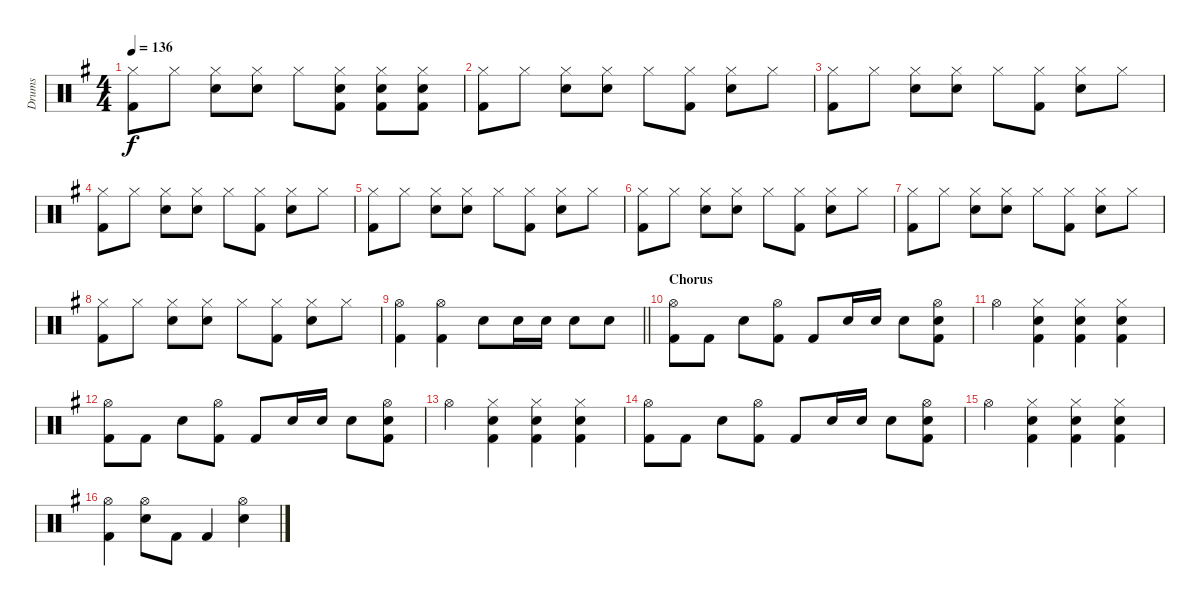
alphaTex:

\track ("Drums" "Drums") {instrument percussion}
\staff {score}
\articulation defaults
\ts (4 4)
\tempo 136
\clef neutral
\ks g
("Hi-Hat (closed)" "Kick (hit) 2").8{dy f} "Hi-Hat (closed)".8 ("Hi-Hat (closed)" "Snare (hit) 2").8 ("Hi-Hat (closed)" "Snare (hit) 2").8 "Hi-Hat (closed)".8 ("Hi-Hat (closed)" "Kick (hit) 2" "Snare (hit) 2").8 ("Hi-Hat (closed)" "Snare (hit) 2" "Kick (hit) 2").8 ("Hi-Hat (closed)" "Snare (hit) 2" "Kick (hit) 2").8 |
("Hi-Hat (closed)" "Kick (hit) 2").8 "Hi-Hat (closed)".8 ("Hi-Hat (closed)" "Snare (hit) 2").8 ("Hi-Hat (closed)" "Snare (hit) 2").8 "Hi-Hat (closed)".8 ("Hi-Hat (closed)" "Kick (hit) 2").8 ("Hi-Hat (closed)" "Snare (hit) 2").8 "Hi-Hat (closed)".8 |
("Hi-Hat (closed)" "Kick (hit) 2").8 "Hi-Hat (closed)".8 ("Hi-Hat (closed)" "Snare (hit) 2").8 ("Hi-Hat (closed)" "Snare (hit) 2").8 "Hi-Hat (closed)".8 ("Hi-Hat (closed)" "Kick (hit) 2").8 ("Hi-Hat (closed)" "Snare (hit) 2").8 "Hi-Hat (closed)".8 |
("Hi-Hat (closed)" "Kick (hit) 2").8 "Hi-Hat (closed)".8 ("Hi-Hat (closed)" "Snare (hit) 2").8 ("Hi-Hat (closed)" "Snare (hit) 2").8 "Hi-Hat (closed)".8 ("Hi-Hat (closed)" "Kick (hit) 2").8 ("Hi-Hat (closed)" "Snare (hit) 2").8 "Hi-Hat (closed)".8 |
("Hi-Hat (closed)" "Kick (hit) 2").8 "Hi-Hat (closed)".8 ("Hi-Hat (closed)" "Snare (hit) 2").8 ("Hi-Hat (closed)" "Snare (hit) 2").8 "Hi-Hat (closed)".8 ("Hi-Hat (closed)" "Kick (hit) 2").8 ("Hi-Hat (closed)" "Snare (hit) 2").8 "Hi-Hat (closed)".8 |
("Hi-Hat (closed)" "Kick (hit) 2").8 "Hi-Hat (closed)".8 ("Hi-Hat (closed)" "Snare (hit) 2").8 ("Hi-Hat (closed)" "Snare (hit) 2").8 "Hi-Hat (closed)".8 ("Hi-Hat (closed)" "Kick (hit) 2").8 ("Hi-Hat (closed)" "Snare (hit) 2").8 "Hi-Hat (closed)".8 |
("Hi-Hat (closed)" "Kick (hit) 2").8 "Hi-Hat (closed)".8 ("Hi-Hat (closed)" "Snare (hit) 2").8 ("Hi-Hat (closed)" "Snare (hit) 2").8 "Hi-Hat (closed)".8 ("Hi-Hat (closed)" "Kick (hit) 2").8 ("Hi-Hat (closed)" "Snare (hit) 2").8 "Hi-Hat (closed)".8 |
("Hi-Hat (closed)" "Kick (hit) 2").8 "Hi-Hat (closed)".8 ("Hi-Hat (closed)" "Snare (hit) 2").8 ("Hi-Hat (closed)" "Snare (hit) 2").8 "Hi-Hat (closed)".8 ("Hi-Hat (closed)" "Kick (hit) 2").8 ("Hi-Hat (closed)" "Snare (hit) 2").8 "Hi-Hat (closed)".8 |
\barLineRight lightlight
("Hi-Hat (open)" "Kick (hit) 2").4 ("Hi-Hat (open)" "Kick (hit) 2").4 "Snare (hit) 2".8 "Snare (hit) 2".16 "Snare (hit) 2".16 "Snare (hit) 2".8 "Snare (hit) 2".8 |
\section ("" "Chorus")
("Kick (hit) 2" "Hi-Hat (open)").8 "Kick (hit) 2".8 "Snare (hit) 2".8 ("Kick (hit) 2" "Hi-Hat (open)").8 "Kick (hit) 2".8 "Snare (hit) 2".16 "Snare (hit) 2".16 "Snare (hit) 2".8 ("Snare (hit) 2" "Kick (hit) 2" "Hi-Hat (open)").8 |
"Hi-Hat (open)".4 ("Hi-Hat (closed)" "Snare (hit) 2" "Kick (hit) 2").4 ("Hi-Hat (closed)" "Kick (hit) 2" "Snare (hit) 2").4 ("Hi-Hat (closed)" "Kick (hit) 2" "Snare (hit) 2").4 |
("Kick (hit) 2" "Hi-Hat (open)").8 "Kick (hit) 2".8 "Snare (hit) 2".8 ("Kick (hit) 2" "Hi-Hat (open)").8 "Kick (hit) 2".8 "Snare (hit) 2".16 "Snare (hit) 2".16 "Snare (hit) 2".8 ("Snare (hit) 2" "Kick (hit) 2" "Hi-Hat (open)").8 |
"Hi-Hat (open)".4 ("Hi-Hat (closed)" "Snare (hit) 2" "Kick (hit) 2").4 ("Hi-Hat (closed)" "Kick (hit) 2" "Snare (hit) 2").4 ("Hi-Hat (closed)" "Kick (hit) 2" "Snare (hit) 2").4 |
("Kick (hit) 2" "Hi-Hat (open)").8 "Kick (hit) 2".8 "Snare (hit) 2".8 ("Kick (hit) 2" "Hi-Hat (open)").8 "Kick (hit) 2".8 "Snare (hit) 2".16 "Snare (hit) 2".16 "Snare (hit) 2".8 ("Snare (hit) 2" "Kick (hit) 2" "Hi-Hat (open)").8 |
"Hi-Hat (open)".4 ("Hi-Hat (closed)" "Snare (hit) 2" "Kick (hit) 2").4 ("Hi-Hat (closed)" "Kick (hit) 2" "Snare (hit) 2").4 ("Hi-Hat (closed)" "Kick (hit) 2" "Snare (hit) 2").4 |
("Hi-Hat (open)" "Kick (hit) 2").4 ("Snare (hit) 2" "Hi-Hat (open)").8 "Kick (hit) 2".8 "Kick (hit) 2".4 ("Snare (hit) 2" "Hi-Hat (open)").4
